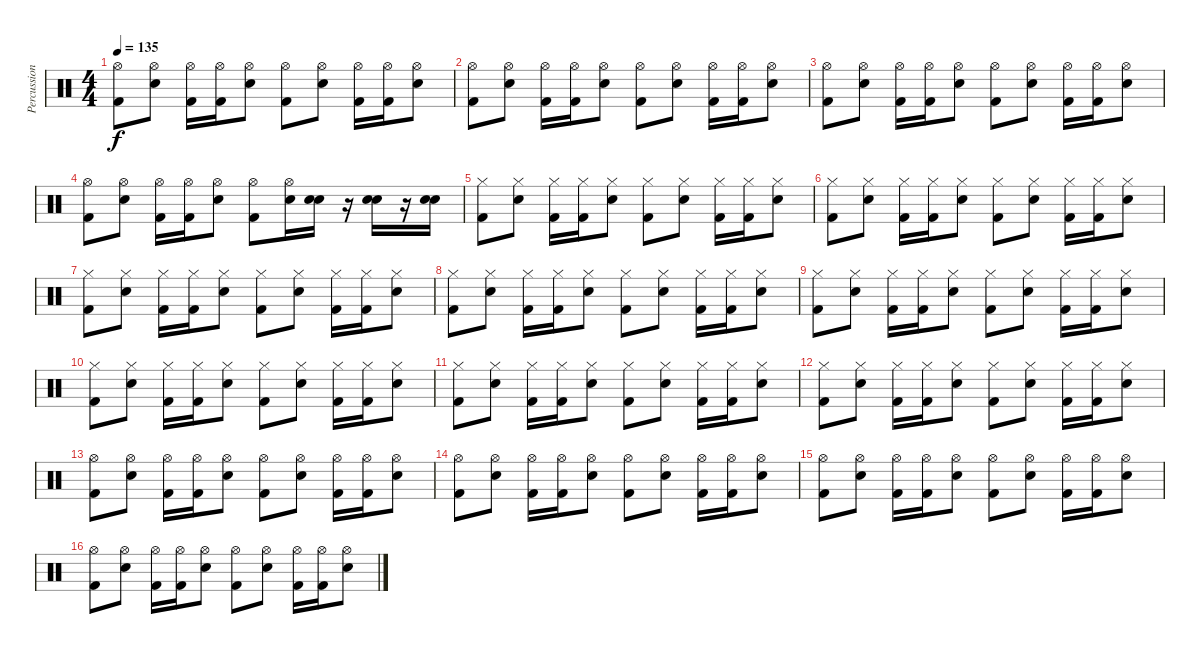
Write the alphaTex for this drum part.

\track ("Percussion" "Percussion") {instrument percussion}
\staff {score}
\articulation defaults
\ts (4 4)
\tempo 135
\clef neutral
\ks c
("Hi-Hat (open)" "Kick (hit) 2").8{dy f} ("Hi-Hat (open)" "Electric Snare (hit)").8 ("Hi-Hat (open)" "Kick (hit) 2").16 ("Hi-Hat (open)" "Kick (hit) 2").16 ("Hi-Hat (open)" "Electric Snare (hit)").8 ("Hi-Hat (open)" "Kick (hit) 2").8 ("Hi-Hat (open)" "Electric Snare (hit)").8 ("Hi-Hat (open)" "Kick (hit) 2").16 ("Hi-Hat (open)" "Kick (hit) 2").16 ("Hi-Hat (open)" "Electric Snare (hit)").8 |
("Hi-Hat (open)" "Kick (hit) 2").8 ("Hi-Hat (open)" "Electric Snare (hit)").8 ("Hi-Hat (open)" "Kick (hit) 2").16 ("Hi-Hat (open)" "Kick (hit) 2").16 ("Hi-Hat (open)" "Electric Snare (hit)").8 ("Hi-Hat (open)" "Kick (hit) 2").8 ("Hi-Hat (open)" "Electric Snare (hit)").8 ("Hi-Hat (open)" "Kick (hit) 2").16 ("Hi-Hat (open)" "Kick (hit) 2").16 ("Hi-Hat (open)" "Electric Snare (hit)").8 |
("Hi-Hat (open)" "Kick (hit) 2").8 ("Hi-Hat (open)" "Electric Snare (hit)").8 ("Hi-Hat (open)" "Kick (hit) 2").16 ("Hi-Hat (open)" "Kick (hit) 2").16 ("Hi-Hat (open)" "Electric Snare (hit)").8 ("Hi-Hat (open)" "Kick (hit) 2").8 ("Hi-Hat (open)" "Electric Snare (hit)").8 ("Hi-Hat (open)" "Kick (hit) 2").16 ("Hi-Hat (open)" "Kick (hit) 2").16 ("Hi-Hat (open)" "Electric Snare (hit)").8 |
("Hi-Hat (open)" "Kick (hit) 2").8 ("Hi-Hat (open)" "Electric Snare (hit)").8 ("Hi-Hat (open)" "Kick (hit) 2").16 ("Hi-Hat (open)" "Kick (hit) 2").16 ("Hi-Hat (open)" "Electric Snare (hit)").8 ("Hi-Hat (open)" "Kick (hit) 2").8 ("Hi-Hat (open)" "Snare (hit)").16 ("Electric Snare (hit)" "Electric Snare (hit)").16 r.16 ("Electric Snare (hit)" "Electric Snare (hit)").16 r.16 ("Electric Snare (hit)" "Electric Snare (hit)").16 |
("Hi-Hat (closed)" "Kick (hit) 2").8 ("Hi-Hat (closed)" "Electric Snare (hit)").8 ("Hi-Hat (closed)" "Kick (hit) 2").16 ("Hi-Hat (closed)" "Kick (hit) 2").16 ("Hi-Hat (closed)" "Electric Snare (hit)").8 ("Hi-Hat (closed)" "Kick (hit) 2").8 ("Hi-Hat (closed)" "Electric Snare (hit)").8 ("Hi-Hat (closed)" "Kick (hit) 2").16 ("Hi-Hat (closed)" "Kick (hit) 2").16 ("Hi-Hat (closed)" "Electric Snare (hit)").8 |
("Hi-Hat (closed)" "Kick (hit) 2").8 ("Hi-Hat (closed)" "Electric Snare (hit)").8 ("Hi-Hat (closed)" "Kick (hit) 2").16 ("Hi-Hat (closed)" "Kick (hit) 2").16 ("Hi-Hat (closed)" "Electric Snare (hit)").8 ("Hi-Hat (closed)" "Kick (hit) 2").8 ("Hi-Hat (closed)" "Electric Snare (hit)").8 ("Hi-Hat (closed)" "Kick (hit) 2").16 ("Hi-Hat (closed)" "Kick (hit) 2").16 ("Hi-Hat (closed)" "Electric Snare (hit)").8 |
("Hi-Hat (closed)" "Kick (hit) 2").8 ("Hi-Hat (closed)" "Electric Snare (hit)").8 ("Hi-Hat (closed)" "Kick (hit) 2").16 ("Hi-Hat (closed)" "Kick (hit) 2").16 ("Hi-Hat (closed)" "Electric Snare (hit)").8 ("Hi-Hat (closed)" "Kick (hit) 2").8 ("Hi-Hat (closed)" "Electric Snare (hit)").8 ("Hi-Hat (closed)" "Kick (hit) 2").16 ("Hi-Hat (closed)" "Kick (hit) 2").16 ("Hi-Hat (closed)" "Electric Snare (hit)").8 |
("Hi-Hat (closed)" "Kick (hit) 2").8 ("Hi-Hat (closed)" "Electric Snare (hit)").8 ("Hi-Hat (closed)" "Kick (hit) 2").16 ("Hi-Hat (closed)" "Kick (hit) 2").16 ("Hi-Hat (closed)" "Electric Snare (hit)").8 ("Hi-Hat (closed)" "Kick (hit) 2").8 ("Hi-Hat (closed)" "Electric Snare (hit)").8 ("Hi-Hat (closed)" "Kick (hit) 2").16 ("Hi-Hat (closed)" "Kick (hit) 2").16 ("Hi-Hat (closed)" "Electric Snare (hit)").8 |
("Hi-Hat (closed)" "Kick (hit) 2").8 ("Hi-Hat (closed)" "Electric Snare (hit)").8 ("Hi-Hat (closed)" "Kick (hit) 2").16 ("Hi-Hat (closed)" "Kick (hit) 2").16 ("Hi-Hat (closed)" "Electric Snare (hit)").8 ("Hi-Hat (closed)" "Kick (hit) 2").8 ("Hi-Hat (closed)" "Electric Snare (hit)").8 ("Hi-Hat (closed)" "Kick (hit) 2").16 ("Hi-Hat (closed)" "Kick (hit) 2").16 ("Hi-Hat (closed)" "Electric Snare (hit)").8 |
("Hi-Hat (closed)" "Kick (hit) 2").8 ("Hi-Hat (closed)" "Electric Snare (hit)").8 ("Hi-Hat (closed)" "Kick (hit) 2").16 ("Hi-Hat (closed)" "Kick (hit) 2").16 ("Hi-Hat (closed)" "Electric Snare (hit)").8 ("Hi-Hat (closed)" "Kick (hit) 2").8 ("Hi-Hat (closed)" "Electric Snare (hit)").8 ("Hi-Hat (closed)" "Kick (hit) 2").16 ("Hi-Hat (closed)" "Kick (hit) 2").16 ("Hi-Hat (closed)" "Electric Snare (hit)").8 |
("Hi-Hat (closed)" "Kick (hit) 2").8 ("Hi-Hat (closed)" "Electric Snare (hit)").8 ("Hi-Hat (closed)" "Kick (hit) 2").16 ("Hi-Hat (closed)" "Kick (hit) 2").16 ("Hi-Hat (closed)" "Electric Snare (hit)").8 ("Hi-Hat (closed)" "Kick (hit) 2").8 ("Hi-Hat (closed)" "Electric Snare (hit)").8 ("Hi-Hat (closed)" "Kick (hit) 2").16 ("Hi-Hat (closed)" "Kick (hit) 2").16 ("Hi-Hat (closed)" "Electric Snare (hit)").8 |
("Hi-Hat (closed)" "Kick (hit) 2").8 ("Hi-Hat (closed)" "Electric Snare (hit)").8 ("Hi-Hat (closed)" "Kick (hit) 2").16 ("Hi-Hat (closed)" "Kick (hit) 2").16 ("Hi-Hat (closed)" "Electric Snare (hit)").8 ("Hi-Hat (closed)" "Kick (hit) 2").8 ("Hi-Hat (closed)" "Electric Snare (hit)").8 ("Hi-Hat (closed)" "Kick (hit) 2").16 ("Hi-Hat (closed)" "Kick (hit) 2").16 ("Hi-Hat (closed)" "Electric Snare (hit)").8 |
("Hi-Hat (open)" "Kick (hit) 2").8 ("Hi-Hat (open)" "Electric Snare (hit)").8 ("Hi-Hat (open)" "Kick (hit) 2").16 ("Hi-Hat (open)" "Kick (hit) 2").16 ("Hi-Hat (open)" "Electric Snare (hit)").8 ("Hi-Hat (open)" "Kick (hit) 2").8 ("Hi-Hat (open)" "Electric Snare (hit)").8 ("Hi-Hat (open)" "Kick (hit) 2").16 ("Hi-Hat (open)" "Kick (hit) 2").16 ("Hi-Hat (open)" "Electric Snare (hit)").8 |
("Hi-Hat (open)" "Kick (hit) 2").8 ("Hi-Hat (open)" "Electric Snare (hit)").8 ("Hi-Hat (open)" "Kick (hit) 2").16 ("Hi-Hat (open)" "Kick (hit) 2").16 ("Hi-Hat (open)" "Electric Snare (hit)").8 ("Hi-Hat (open)" "Kick (hit) 2").8 ("Hi-Hat (open)" "Electric Snare (hit)").8 ("Hi-Hat (open)" "Kick (hit) 2").16 ("Hi-Hat (open)" "Kick (hit) 2").16 ("Hi-Hat (open)" "Electric Snare (hit)").8 |
("Hi-Hat (open)" "Kick (hit) 2").8 ("Hi-Hat (open)" "Electric Snare (hit)").8 ("Hi-Hat (open)" "Kick (hit) 2").16 ("Hi-Hat (open)" "Kick (hit) 2").16 ("Hi-Hat (open)" "Electric Snare (hit)").8 ("Hi-Hat (open)" "Kick (hit) 2").8 ("Hi-Hat (open)" "Electric Snare (hit)").8 ("Hi-Hat (open)" "Kick (hit) 2").16 ("Hi-Hat (open)" "Kick (hit) 2").16 ("Hi-Hat (open)" "Electric Snare (hit)").8 |
("Hi-Hat (open)" "Kick (hit) 2").8 ("Hi-Hat (open)" "Electric Snare (hit)").8 ("Hi-Hat (open)" "Kick (hit) 2").16 ("Hi-Hat (open)" "Kick (hit) 2").16 ("Hi-Hat (open)" "Electric Snare (hit)").8 ("Hi-Hat (open)" "Kick (hit) 2").8 ("Hi-Hat (open)" "Electric Snare (hit)").8 ("Hi-Hat (open)" "Kick (hit) 2").16 ("Hi-Hat (open)" "Kick (hit) 2").16 ("Hi-Hat (open)" "Electric Snare (hit)").8
